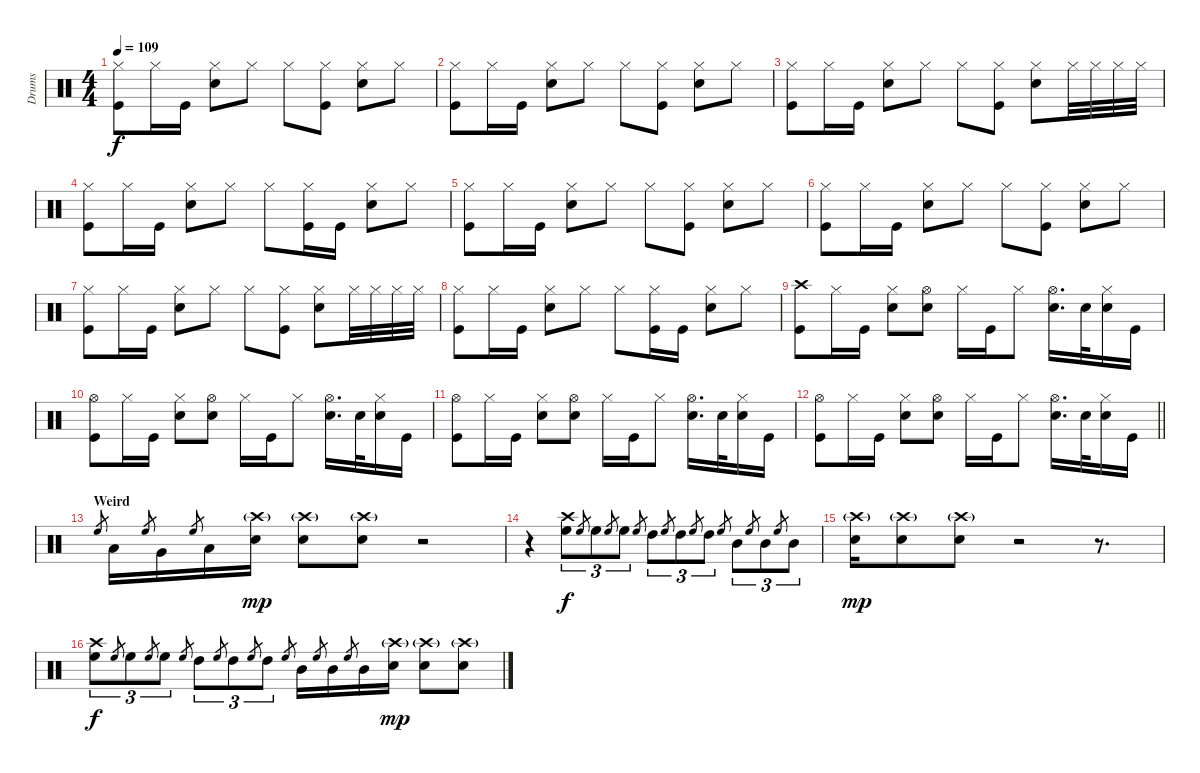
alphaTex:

\track ("Drums" "Drums") {instrument percussion}
\staff {score}
\articulation defaults
\ts (4 4)
\tempo 109
\clef neutral
\ks c
("Hi-Hat (closed)" "Kick (hit)").8{dy f} "Hi-Hat (closed)".16 "Kick (hit)".16 ("Hi-Hat (closed)" "Snare (hit) 2").8 "Hi-Hat (closed)".8 "Hi-Hat (closed)".8 ("Hi-Hat (closed)" "Kick (hit)").8 ("Hi-Hat (closed)" "Snare (hit) 2").8 "Hi-Hat (closed)".8 |
("Hi-Hat (closed)" "Kick (hit)").8 "Hi-Hat (closed)".16 "Kick (hit)".16 ("Hi-Hat (closed)" "Snare (hit) 2").8 "Hi-Hat (closed)".8 "Hi-Hat (closed)".8 ("Hi-Hat (closed)" "Kick (hit)").8 ("Hi-Hat (closed)" "Snare (hit) 2").8 "Hi-Hat (closed)".8 |
("Hi-Hat (closed)" "Kick (hit)").8 "Hi-Hat (closed)".16 "Kick (hit)".16 ("Hi-Hat (closed)" "Snare (hit) 2").8 "Hi-Hat (closed)".8 "Hi-Hat (closed)".8 ("Hi-Hat (closed)" "Kick (hit)").8 ("Hi-Hat (closed)" "Snare (hit) 2").8 "Hi-Hat (closed)".32 "Hi-Hat (closed)".32 "Hi-Hat (closed)".32 "Hi-Hat (closed)".32 |
("Hi-Hat (closed)" "Kick (hit)").8 "Hi-Hat (closed)".16 "Kick (hit)".16 ("Hi-Hat (closed)" "Snare (hit) 2").8 "Hi-Hat (closed)".8 "Hi-Hat (closed)".8 ("Hi-Hat (closed)" "Kick (hit)").16 "Kick (hit)".16 ("Hi-Hat (closed)" "Snare (hit) 2").8 "Hi-Hat (closed)".8 |
("Hi-Hat (closed)" "Kick (hit)").8 "Hi-Hat (closed)".16 "Kick (hit)".16 ("Hi-Hat (closed)" "Snare (hit) 2").8 "Hi-Hat (closed)".8 "Hi-Hat (closed)".8 ("Hi-Hat (closed)" "Kick (hit)").8 ("Hi-Hat (closed)" "Snare (hit) 2").8 "Hi-Hat (closed)".8 |
("Hi-Hat (closed)" "Kick (hit)").8 "Hi-Hat (closed)".16 "Kick (hit)".16 ("Hi-Hat (closed)" "Snare (hit) 2").8 "Hi-Hat (closed)".8 "Hi-Hat (closed)".8 ("Hi-Hat (closed)" "Kick (hit)").8 ("Hi-Hat (closed)" "Snare (hit) 2").8 "Hi-Hat (closed)".8 |
("Hi-Hat (closed)" "Kick (hit)").8 "Hi-Hat (closed)".16 "Kick (hit)".16 ("Hi-Hat (closed)" "Snare (hit) 2").8 "Hi-Hat (closed)".8 "Hi-Hat (closed)".8 ("Hi-Hat (closed)" "Kick (hit)").8 ("Hi-Hat (closed)" "Snare (hit) 2").8 "Hi-Hat (closed)".32 "Hi-Hat (closed)".32 "Hi-Hat (closed)".32 "Hi-Hat (closed)".32 |
("Hi-Hat (closed)" "Kick (hit)").8 "Hi-Hat (closed)".16 "Kick (hit)".16 ("Hi-Hat (closed)" "Snare (hit) 2").8 "Hi-Hat (closed)".8 "Hi-Hat (closed)".8 ("Hi-Hat (closed)" "Kick (hit)").16 "Kick (hit)".16 ("Hi-Hat (closed)" "Snare (hit) 2").8 "Hi-Hat (closed)".8 |
("Crash high (hit)" "Kick (hit)").8 "Hi-Hat (closed)".16 "Kick (hit)".16 ("Hi-Hat (closed)" "Electric Snare (hit)").8 ("Hi-Hat (open)" "Electric Snare (hit)").8 "Hi-Hat (closed)".16 "Kick (hit)".16 "Hi-Hat (closed)".8 ("Hi-Hat (open)" "Electric Snare (hit)").16{d} "Electric Snare (hit)".32 ("Hi-Hat (closed)" "Electric Snare (hit)").16 "Kick (hit)".16 |
("Hi-Hat (open)" "Kick (hit)").8 "Hi-Hat (closed)".16 "Kick (hit)".16 ("Hi-Hat (closed)" "Electric Snare (hit)").8 ("Hi-Hat (open)" "Electric Snare (hit)").8 "Hi-Hat (closed)".16 "Kick (hit)".16 "Hi-Hat (closed)".8 ("Hi-Hat (open)" "Electric Snare (hit)").16{d} "Electric Snare (hit)".32 ("Hi-Hat (closed)" "Electric Snare (hit)").16 "Kick (hit)".16 |
("Hi-Hat (open)" "Kick (hit)").8 "Hi-Hat (closed)".16 "Kick (hit)".16 ("Hi-Hat (closed)" "Electric Snare (hit)").8 ("Hi-Hat (open)" "Electric Snare (hit)").8 "Hi-Hat (closed)".16 "Kick (hit)".16 "Hi-Hat (closed)".8 ("Hi-Hat (open)" "Electric Snare (hit)").16{d} "Electric Snare (hit)".32 ("Hi-Hat (closed)" "Electric Snare (hit)").16 "Kick (hit)".16 |
\barLineRight lightlight
("Hi-Hat (open)" "Kick (hit)").8 "Hi-Hat (closed)".16 "Kick (hit)".16 ("Hi-Hat (closed)" "Electric Snare (hit)").8 ("Hi-Hat (open)" "Electric Snare (hit)").8 "Hi-Hat (closed)".16 "Kick (hit)".16 "Hi-Hat (closed)".8 ("Hi-Hat (open)" "Electric Snare (hit)").16{d} "Electric Snare (hit)".32 ("Hi-Hat (closed)" "Electric Snare (hit)").16 "Kick (hit)".16 |
\section ("" "Weird")
"High Floor Tom (hit)".8{gr} "Low Tom (hit)".16 "High Floor Tom (hit)".8{gr} "Very Low Tom (hit)".16 "High Floor Tom (hit)".8{gr} "Low Floor Tom (hit)".16 ("Crash high (hit)"{g} "Electric Snare (hit)").16{dy mp} ("Crash high (hit)"{g} "Electric Snare (hit)").8 ("Crash high (hit)"{g} "Electric Snare (hit)").8 r.2 |
r.4 ("Crash high (hit)" "High Floor Tom (hit)").8{tu (3 2) dy f} "High Floor Tom (hit)".8{gr} "High Floor Tom (hit)".8{tu (3 2)} "High Floor Tom (hit)".8{gr} "High Floor Tom (hit)".8{tu (3 2)} "High Floor Tom (hit)".8{gr} "High Tom (hit)".8{tu (3 2)} "High Floor Tom (hit)".8{gr} "High Tom (hit)".8{tu (3 2)} "High Floor Tom (hit)".8{gr} "High Tom (hit)".8{tu (3 2)} "High Floor Tom (hit)".8{gr} "Mid Tom (hit)".8{tu (3 2)} "High Floor Tom (hit)".8{gr} "Mid Tom (hit)".8{tu (3 2)} "High Floor Tom (hit)".8{gr} "Mid Tom (hit)".8{tu (3 2)} |
("Crash high (hit)"{g} "Electric Snare (hit)").16{dy mp} ("Crash high (hit)"{g} "Electric Snare (hit)").8 ("Crash high (hit)"{g} "Electric Snare (hit)").8 r.2 r.8{d} |
("Crash high (hit)" "High Floor Tom (hit)").8{tu (3 2) dy f} "High Floor Tom (hit)".8{gr} "High Floor Tom (hit)".8{tu (3 2)} "High Floor Tom (hit)".8{gr} "High Floor Tom (hit)".8{tu (3 2)} "High Floor Tom (hit)".8{gr} "High Tom (hit)".8{tu (3 2)} "High Floor Tom (hit)".8{gr} "High Tom (hit)".8{tu (3 2)} "High Floor Tom (hit)".8{gr} "High Tom (hit)".8{tu (3 2)} "High Floor Tom (hit)".8{gr} "Mid Tom (hit)".16 "High Floor Tom (hit)".8{gr} "Mid Tom (hit)".16 "High Floor Tom (hit)".8{gr} "Mid Tom (hit)".16 ("Crash high (hit)"{g} "Electric Snare (hit)").16{dy mp} ("Crash high (hit)"{g} "Electric Snare (hit)").8 ("Crash high (hit)"{g} "Electric Snare (hit)").8
